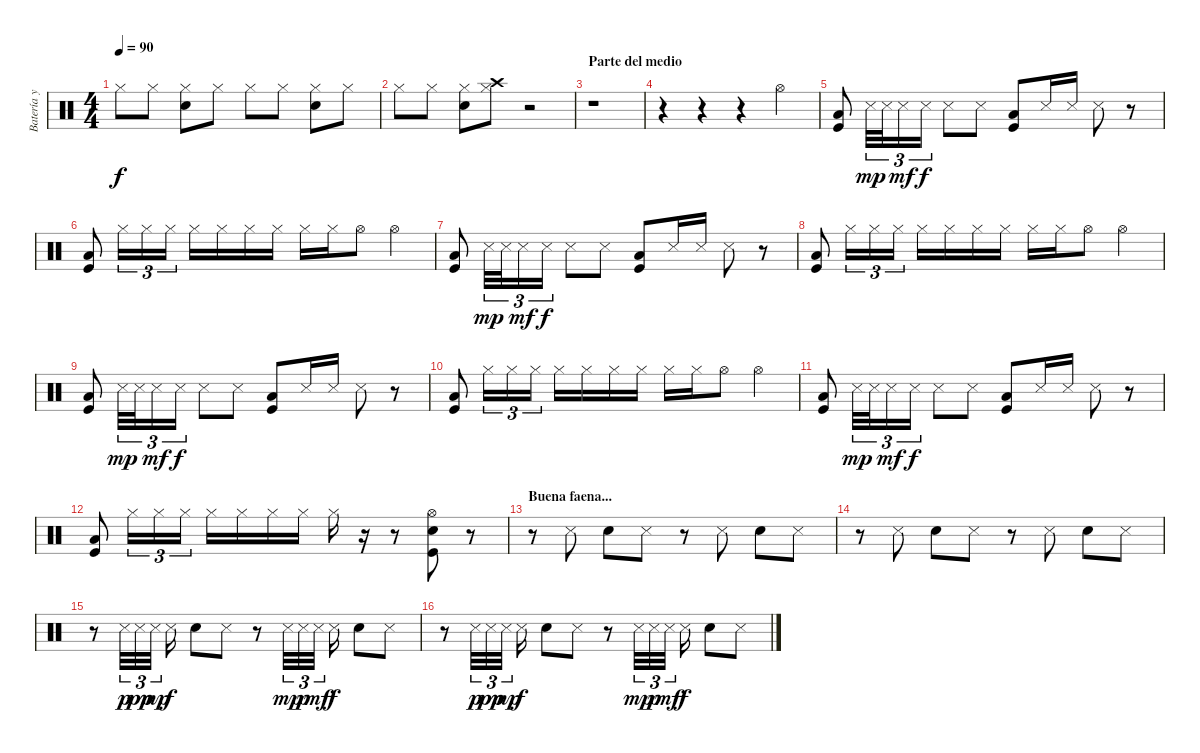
\track ("Batería y risa" "Batería y ") {instrument percussion}
\staff {score}
\articulation defaults
\ts (4 4)
\tempo 90
\clef neutral
\ks c "Hi-Hat (closed)".8{dy f} "Hi-Hat (closed)".8
("Hi-Hat (closed)" "Snare (hit) 2").8 "Hi-Hat (closed)".8 "Hi-Hat (closed)".8 "Hi-Hat (closed)".8 ("Hi-Hat (closed)" "Snare (hit) 2").8 "Hi-Hat (closed)".8 |
"Hi-Hat (closed)".8 "Hi-Hat (closed)".8 ("Hi-Hat (closed)" "Snare (hit) 2").8 ("Hi-Hat (closed)" "Crash high (hit)").8 r.2 |
\section ("" "Parte del medio")
r.1 |
r.4 r.4 r.4 "Hi-Hat (open)".4 |
("Kick (hit)" "Low Floor Tom (hit)").8 "Snare (side stick) 3".32{tu (3 2) dy mp} "Snare (side stick) 3".32{tu (3 2)} "Snare (side stick) 3".16{tu (3 2) dy mf} "Snare (side stick) 3".16{tu (3 2) dy f} "Snare (side stick) 3".8 "Snare (side stick) 3".8 ("Kick (hit)" "Low Floor Tom (hit)").8 "Snare (side stick) 3".16 "Snare (side stick) 3".16 "Snare (side stick) 3".8 r.8 |
("Kick (hit)" "Low Floor Tom (hit)").8 "Hi-Hat (closed)".16{tu (3 2)} "Hi-Hat (closed)".16{tu (3 2)} "Hi-Hat (closed)".16{tu (3 2)} "Hi-Hat (closed)".16 "Hi-Hat (closed)".16 "Hi-Hat (closed)".16 "Hi-Hat (closed)".16 "Hi-Hat (closed)".16 "Hi-Hat (closed)".16 "Hi-Hat (open)".8 "Hi-Hat (open)".4 |
("Kick (hit)" "Low Floor Tom (hit)").8 "Snare (side stick) 3".32{tu (3 2) dy mp} "Snare (side stick) 3".32{tu (3 2)} "Snare (side stick) 3".16{tu (3 2) dy mf} "Snare (side stick) 3".16{tu (3 2) dy f} "Snare (side stick) 3".8 "Snare (side stick) 3".8 ("Kick (hit)" "Low Floor Tom (hit)").8 "Snare (side stick) 3".16 "Snare (side stick) 3".16 "Snare (side stick) 3".8 r.8 |
("Kick (hit)" "Low Floor Tom (hit)").8 "Hi-Hat (closed)".16{tu (3 2)} "Hi-Hat (closed)".16{tu (3 2)} "Hi-Hat (closed)".16{tu (3 2)} "Hi-Hat (closed)".16 "Hi-Hat (closed)".16 "Hi-Hat (closed)".16 "Hi-Hat (closed)".16 "Hi-Hat (closed)".16 "Hi-Hat (closed)".16 "Hi-Hat (open)".8 "Hi-Hat (open)".4 |
("Kick (hit)" "Low Floor Tom (hit)").8 "Snare (side stick) 3".32{tu (3 2) dy mp} "Snare (side stick) 3".32{tu (3 2)} "Snare (side stick) 3".16{tu (3 2) dy mf} "Snare (side stick) 3".16{tu (3 2) dy f} "Snare (side stick) 3".8 "Snare (side stick) 3".8 ("Kick (hit)" "Low Floor Tom (hit)").8 "Snare (side stick) 3".16 "Snare (side stick) 3".16 "Snare (side stick) 3".8 r.8 |
("Kick (hit)" "Low Floor Tom (hit)").8 "Hi-Hat (closed)".16{tu (3 2)} "Hi-Hat (closed)".16{tu (3 2)} "Hi-Hat (closed)".16{tu (3 2)} "Hi-Hat (closed)".16 "Hi-Hat (closed)".16 "Hi-Hat (closed)".16 "Hi-Hat (closed)".16 "Hi-Hat (closed)".16 "Hi-Hat (closed)".16 "Hi-Hat (open)".8 "Hi-Hat (open)".4 |
("Kick (hit)" "Low Floor Tom (hit)").8 "Snare (side stick) 3".32{tu (3 2) dy mp} "Snare (side stick) 3".32{tu (3 2)} "Snare (side stick) 3".16{tu (3 2) dy mf} "Snare (side stick) 3".16{tu (3 2) dy f} "Snare (side stick) 3".8 "Snare (side stick) 3".8 ("Kick (hit)" "Low Floor Tom (hit)").8 "Snare (side stick) 3".16 "Snare (side stick) 3".16 "Snare (side stick) 3".8 r.8 |
("Kick (hit)" "Low Floor Tom (hit)").8 "Hi-Hat (closed)".16{tu (3 2)} "Hi-Hat (closed)".16{tu (3 2)} "Hi-Hat (closed)".16{tu (3 2)} "Hi-Hat (closed)".16 "Hi-Hat (closed)".16 "Hi-Hat (closed)".16 "Hi-Hat (closed)".16 "Hi-Hat (closed)".16 r.16 r.8 ("Kick (hit)" "Electric Snare (hit)" "Hi-Hat (open)").8 r.8 |
\section ("" "Buena faena...")
r.8 "Snare (side stick) 3".8 "Snare (hit) 2".8 "Snare (side stick) 3".8 r.8 "Snare (side stick) 3".8 "Snare (hit) 2".8 "Snare (side stick) 3".8 |
r.8 "Snare (side stick) 3".8 "Snare (hit) 2".8 "Snare (side stick) 3".8 r.8 "Snare (side stick) 3".8 "Snare (hit) 2".8 "Snare (side stick) 3".8 |
r.8 "Snare (side stick) 3".32{tu (3 2) dy p} "Snare (side stick) 3".32{tu (3 2) dy pp} "Snare (side stick) 3".32{tu (3 2) dy mp} "Snare (side stick) 3".16{dy f} "Snare (hit) 2".8 "Snare (side stick) 3".8 r.8 "Snare (side stick) 3".32{tu (3 2) dy mp} "Snare (side stick) 3".32{tu (3 2) dy p} "Snare (side stick) 3".32{tu (3 2) dy mf} "Snare (side stick) 3".16{dy f} "Snare (hit) 2".8 "Snare (side stick) 3".8 |
r.8 "Snare (side stick) 3".32{tu (3 2) dy p} "Snare (side stick) 3".32{tu (3 2) dy pp} "Snare (side stick) 3".32{tu (3 2) dy mp} "Snare (side stick) 3".16{dy f} "Snare (hit) 2".8 "Snare (side stick) 3".8 r.8 "Snare (side stick) 3".32{tu (3 2) dy mp} "Snare (side stick) 3".32{tu (3 2) dy p} "Snare (side stick) 3".32{tu (3 2) dy mf} "Snare (side stick) 3".16{dy f} "Snare (hit) 2".8 "Snare (side stick) 3".8
